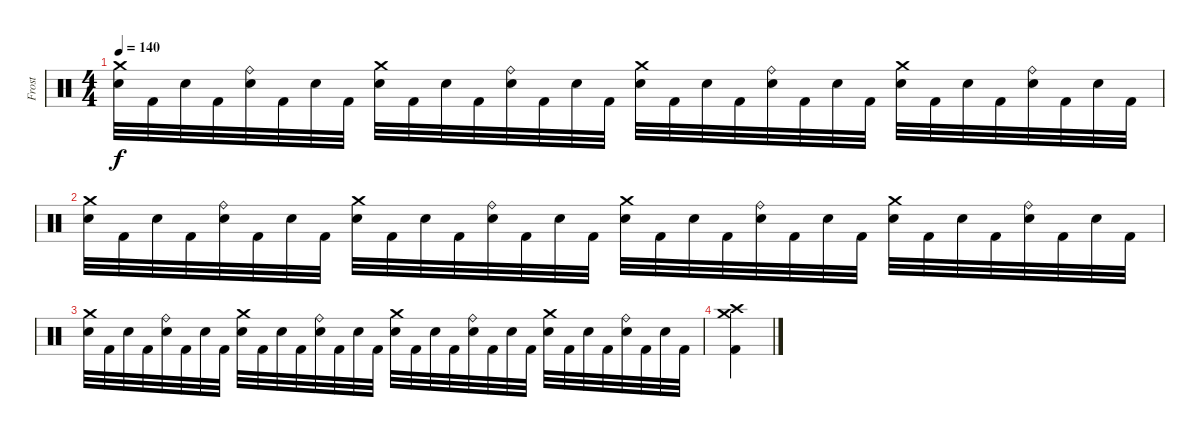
\track ("Frost" "Frost") {instrument percussion}
\staff {score}
\articulation defaults
\ts (4 4)
\tempo 140
\clef neutral
\ks c
("Crash medium (hit)" "Snare (hit) 2").32{dy f} "Kick (hit) 2".32 "Snare (hit) 2".32 "Kick (hit) 2".32 ("Ride (bell)" "Snare (hit) 2").32 "Kick (hit) 2".32 "Snare (hit) 2".32 "Kick (hit) 2".32 ("Crash medium (hit)" "Snare (hit) 2").32 "Kick (hit) 2".32 "Snare (hit) 2".32 "Kick (hit) 2".32 ("Ride (bell)" "Snare (hit) 2").32 "Kick (hit) 2".32 "Snare (hit) 2".32 "Kick (hit) 2".32 ("Crash medium (hit)" "Snare (hit) 2").32 "Kick (hit) 2".32 "Snare (hit) 2".32 "Kick (hit) 2".32 ("Ride (bell)" "Snare (hit) 2").32 "Kick (hit) 2".32 "Snare (hit) 2".32 "Kick (hit) 2".32 ("Crash medium (hit)" "Snare (hit) 2").32 "Kick (hit) 2".32 "Snare (hit) 2".32 "Kick (hit) 2".32 ("Ride (bell)" "Snare (hit) 2").32 "Kick (hit) 2".32 "Snare (hit) 2".32 "Kick (hit) 2".32 |
("Crash medium (hit)" "Snare (hit) 2").32 "Kick (hit) 2".32 "Snare (hit) 2".32 "Kick (hit) 2".32 ("Ride (bell)" "Snare (hit) 2").32 "Kick (hit) 2".32 "Snare (hit) 2".32 "Kick (hit) 2".32 ("Crash medium (hit)" "Snare (hit) 2").32 "Kick (hit) 2".32 "Snare (hit) 2".32 "Kick (hit) 2".32 ("Ride (bell)" "Snare (hit) 2").32 "Kick (hit) 2".32 "Snare (hit) 2".32 "Kick (hit) 2".32 ("Crash medium (hit)" "Snare (hit) 2").32 "Kick (hit) 2".32 "Snare (hit) 2".32 "Kick (hit) 2".32 ("Ride (bell)" "Snare (hit) 2").32 "Kick (hit) 2".32 "Snare (hit) 2".32 "Kick (hit) 2".32 ("Crash medium (hit)" "Snare (hit) 2").32 "Kick (hit) 2".32 "Snare (hit) 2".32 "Kick (hit) 2".32 ("Ride (bell)" "Snare (hit) 2").32 "Kick (hit) 2".32 "Snare (hit) 2".32 "Kick (hit) 2".32 |
("Crash medium (hit)" "Snare (hit) 2").32 "Kick (hit) 2".32 "Snare (hit) 2".32 "Kick (hit) 2".32 ("Ride (bell)" "Snare (hit) 2").32 "Kick (hit) 2".32 "Snare (hit) 2".32 "Kick (hit) 2".32 ("Crash medium (hit)" "Snare (hit) 2").32 "Kick (hit) 2".32 "Snare (hit) 2".32 "Kick (hit) 2".32 ("Ride (bell)" "Snare (hit) 2").32 "Kick (hit) 2".32 "Snare (hit) 2".32 "Kick (hit) 2".32 ("Crash medium (hit)" "Snare (hit) 2").32 "Kick (hit) 2".32 "Snare (hit) 2".32 "Kick (hit) 2".32 ("Ride (bell)" "Snare (hit) 2").32 "Kick (hit) 2".32 "Snare (hit) 2".32 "Kick (hit) 2".32 ("Crash medium (hit)" "Snare (hit) 2").32 "Kick (hit) 2".32 "Snare (hit) 2".32 "Kick (hit) 2".32 ("Ride (bell)" "Snare (hit) 2").32 "Kick (hit) 2".32 "Snare (hit) 2".32 "Kick (hit) 2".32 |
("Crash high (hit)" "Crash medium (hit)" "Kick (hit) 2").4
